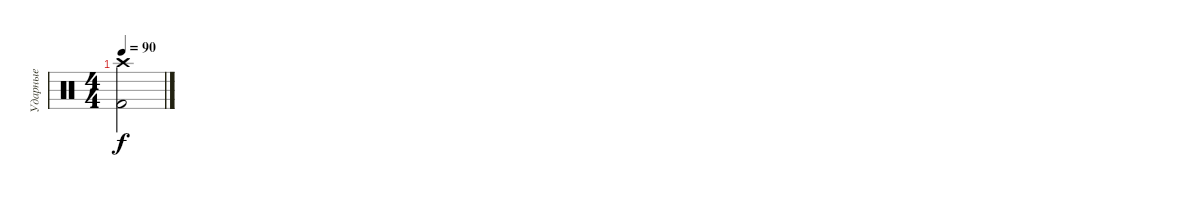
\track ("Ударные" "Ударные") {instrument percussion}
\staff {score}
\articulation defaults
\ts (4 4)
\tempo 90
\clef neutral
\ks c
("Kick (hit) 2" "Crash high (hit)").2{dy f}
